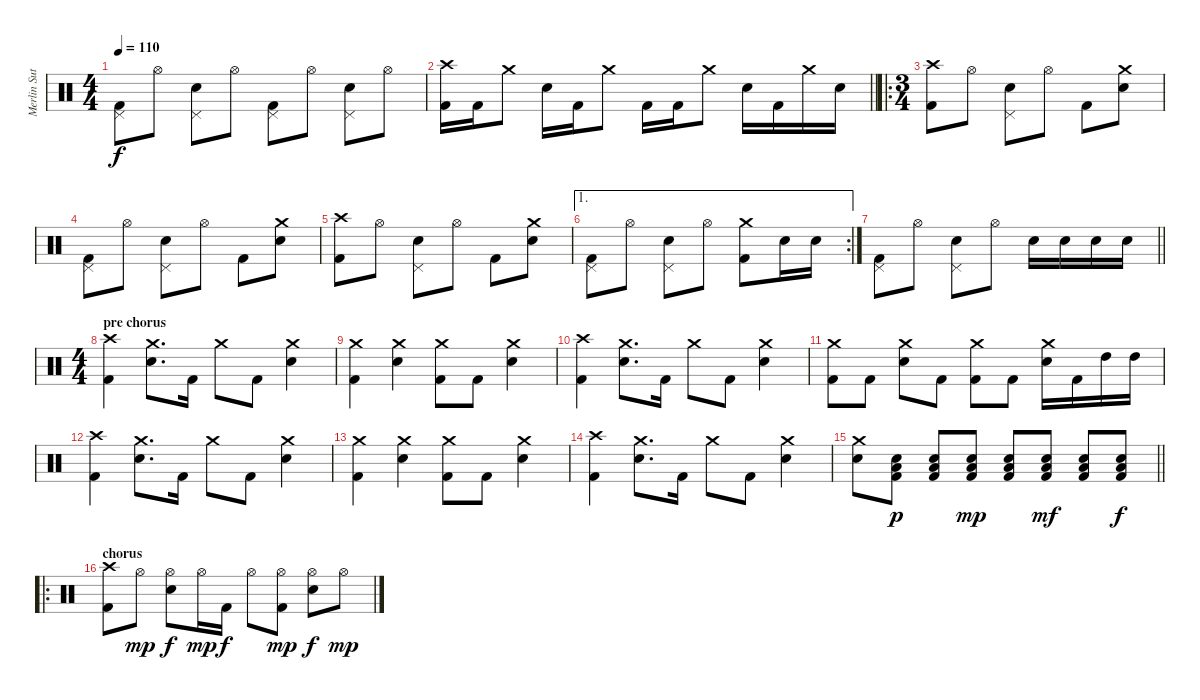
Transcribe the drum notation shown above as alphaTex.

\track ("Merlin Sutter" "Merlin Sut") {instrument percussion}
\staff {score}
\articulation defaults
\ts (4 4)
\tempo 110
\clef neutral
\ks c
("Pedal Hi-Hat (hit)" "Kick (hit) 2").8{dy f} "Hi-Hat (open)".8 ("Pedal Hi-Hat (hit)" "Snare (hit) 2").8 "Hi-Hat (open)".8 ("Pedal Hi-Hat (hit)" "Kick (hit) 2").8 "Hi-Hat (open)".8 ("Pedal Hi-Hat (hit)" "Snare (hit) 2").8 "Hi-Hat (open)".8 |
\barLineRight lightlight
("Crash high (hit)" "Kick (hit) 2").16 "Kick (hit) 2".16 "Crash medium (hit)".8 "Snare (hit) 2".16 "Kick (hit) 2".16 "Crash medium (hit)".8 "Kick (hit) 2".16 "Kick (hit) 2".16 "Crash medium (hit)".8 "Snare (hit) 2".16 "Kick (hit) 2".16 "Crash medium (hit)".16 "Snare (hit) 2".16 |
\ro
\ts (3 4)
\section ("" "")
("Crash high (hit)" "Kick (hit) 2").8 "Hi-Hat (open)".8 ("Pedal Hi-Hat (hit)" "Snare (hit) 2").8 "Hi-Hat (open)".8 "Kick (hit) 2".8 ("Crash medium (hit)" "Snare (hit) 2").8 |
("Pedal Hi-Hat (hit)" "Kick (hit) 2").8 "Hi-Hat (open)".8 ("Pedal Hi-Hat (hit)" "Snare (hit) 2").8 "Hi-Hat (open)".8 "Kick (hit) 2".8 ("Crash medium (hit)" "Snare (hit) 2").8 |
("Crash high (hit)" "Kick (hit) 2").8 "Hi-Hat (open)".8 ("Pedal Hi-Hat (hit)" "Snare (hit) 2").8 "Hi-Hat (open)".8 "Kick (hit) 2".8 ("Crash medium (hit)" "Snare (hit) 2").8 |
\ae 1
\rc 2
("Pedal Hi-Hat (hit)" "Kick (hit) 2").8 "Hi-Hat (open)".8 ("Pedal Hi-Hat (hit)" "Snare (hit) 2").8 "Hi-Hat (open)".8 ("Crash medium (hit)" "Kick (hit) 2").8 "Snare (hit) 2".16 "Snare (hit) 2".16 |
\barLineRight lightlight
("Pedal Hi-Hat (hit)" "Kick (hit) 2").8 "Hi-Hat (open)".8 ("Pedal Hi-Hat (hit)" "Snare (hit) 2").8 "Hi-Hat (open)".8 "Snare (hit) 2".16 "Snare (hit) 2".16 "Snare (hit) 2".16 "Snare (hit) 2".16 |
\ts (4 4)
\section ("" "pre chorus")
("Crash high (hit)" "Kick (hit) 2").4 ("Crash medium (hit)" "Snare (hit) 2").8{d} "Kick (hit) 2".16 "Crash medium (hit)".8 "Kick (hit) 2".8 ("Crash medium (hit)" "Snare (hit) 2").4 |
("Crash medium (hit)" "Kick (hit) 2").4 ("Crash medium (hit)" "Snare (hit) 2").4 ("Crash medium (hit)" "Kick (hit) 2").8 "Kick (hit) 2".8 ("Crash medium (hit)" "Snare (hit) 2").4 |
("Crash high (hit)" "Kick (hit) 2").4 ("Crash medium (hit)" "Snare (hit) 2").8{d} "Kick (hit) 2".16 "Crash medium (hit)".8 "Kick (hit) 2".8 ("Crash medium (hit)" "Snare (hit) 2").4 |
("Crash medium (hit)" "Kick (hit) 2").8 "Kick (hit) 2".8 ("Crash medium (hit)" "Snare (hit) 2").8 "Kick (hit) 2".8 ("Crash medium (hit)" "Kick (hit) 2").8 "Kick (hit) 2".8 ("Crash medium (hit)" "Snare (hit) 2").16 "Kick (hit) 2".16 "High Tom (hit)".16 "High Tom (hit)".16 |
("Crash high (hit)" "Kick (hit) 2").4 ("Crash medium (hit)" "Snare (hit) 2").8{d} "Kick (hit) 2".16 "Crash medium (hit)".8 "Kick (hit) 2".8 ("Crash medium (hit)" "Snare (hit) 2").4 |
("Crash medium (hit)" "Kick (hit) 2").4 ("Crash medium (hit)" "Snare (hit) 2").4 ("Crash medium (hit)" "Kick (hit) 2").8 "Kick (hit) 2".8 ("Crash medium (hit)" "Snare (hit) 2").4 |
("Crash high (hit)" "Kick (hit) 2").4 ("Crash medium (hit)" "Snare (hit) 2").8{d} "Kick (hit) 2".16 "Crash medium (hit)".8 "Kick (hit) 2".8 ("Crash medium (hit)" "Snare (hit) 2").4 |
\barLineRight lightlight
("Crash medium (hit)" "Snare (hit) 2").8 ("Low Tom (hit)" "Snare (hit) 2" "Kick (hit) 2").8{dy p} ("Low Tom (hit)" "Snare (hit) 2" "Kick (hit) 2").8 ("Low Tom (hit)" "Snare (hit) 2" "Kick (hit) 2").8{dy mp} ("Low Tom (hit)" "Snare (hit) 2" "Kick (hit) 2").8 ("Low Tom (hit)" "Snare (hit) 2" "Kick (hit) 2").8{dy mf} ("Low Tom (hit)" "Snare (hit) 2" "Kick (hit) 2").8 ("Low Tom (hit)" "Snare (hit) 2" "Kick (hit) 2").8{dy f} |
\ro
\section ("" "chorus")
("Crash high (hit)" "Kick (hit) 2").8 "Hi-Hat (open)".8{dy mp} ("Hi-Hat (open)" "Snare (hit) 2").8{dy f} "Hi-Hat (open)".16{dy mp} "Kick (hit) 2".16{dy f} "Hi-Hat (open)".8 ("Hi-Hat (open)" "Kick (hit) 2").8{dy mp} ("Hi-Hat (open)" "Snare (hit) 2").8{dy f} "Hi-Hat (open)".8{dy mp}
